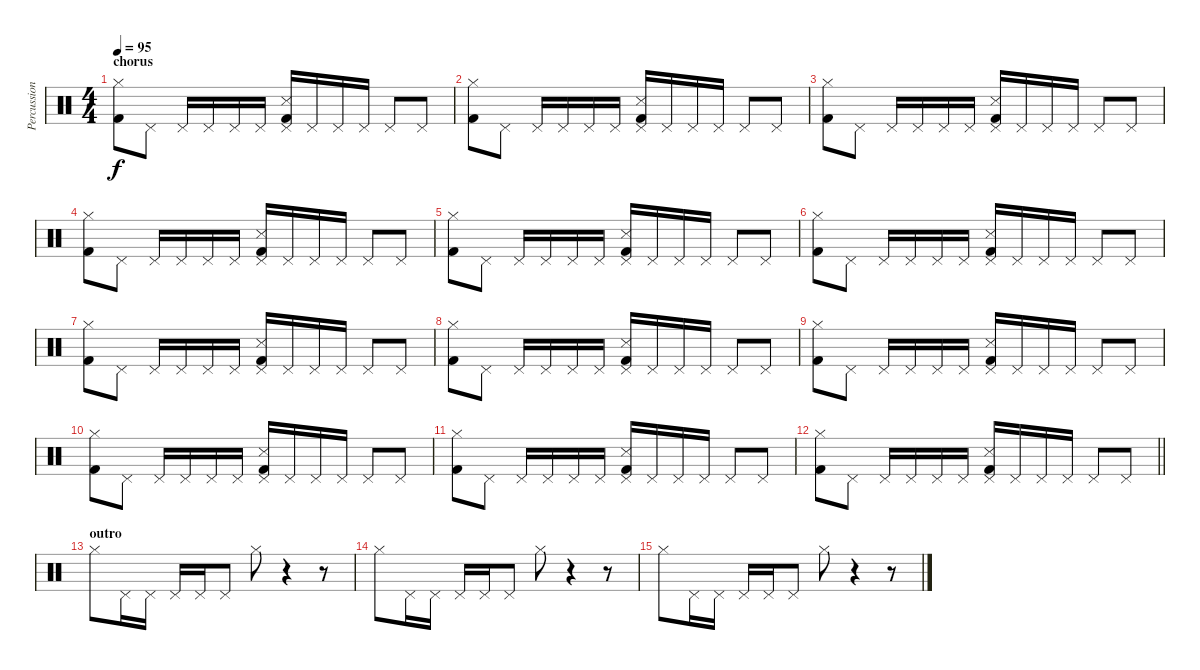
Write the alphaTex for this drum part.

\track ("Percussion" "Percussion") {instrument percussion}
\staff {score}
\articulation defaults
\ts (4 4)
\section ("" "chorus")
\tempo 95
\clef neutral
\ks c
("Kick (hit) 2" "Hi-Hat (closed)").8{dy f} "Pedal Hi-Hat (hit)".8 "Pedal Hi-Hat (hit)".16 "Pedal Hi-Hat (hit)".16 "Pedal Hi-Hat (hit)".16 "Pedal Hi-Hat (hit)".16 ("Kick (hit) 2" "Snare (side stick) 3" "Pedal Hi-Hat (hit)").16 "Pedal Hi-Hat (hit)".16 "Pedal Hi-Hat (hit)".16 "Pedal Hi-Hat (hit)".16 "Pedal Hi-Hat (hit)".8 "Pedal Hi-Hat (hit)".8 |
("Kick (hit) 2" "Hi-Hat (closed)").8 "Pedal Hi-Hat (hit)".8 "Pedal Hi-Hat (hit)".16 "Pedal Hi-Hat (hit)".16 "Pedal Hi-Hat (hit)".16 "Pedal Hi-Hat (hit)".16 ("Kick (hit) 2" "Snare (side stick) 3" "Pedal Hi-Hat (hit)").16 "Pedal Hi-Hat (hit)".16 "Pedal Hi-Hat (hit)".16 "Pedal Hi-Hat (hit)".16 "Pedal Hi-Hat (hit)".8 "Pedal Hi-Hat (hit)".8 |
("Kick (hit) 2" "Hi-Hat (closed)").8 "Pedal Hi-Hat (hit)".8 "Pedal Hi-Hat (hit)".16 "Pedal Hi-Hat (hit)".16 "Pedal Hi-Hat (hit)".16 "Pedal Hi-Hat (hit)".16 ("Kick (hit) 2" "Snare (side stick) 3" "Pedal Hi-Hat (hit)").16 "Pedal Hi-Hat (hit)".16 "Pedal Hi-Hat (hit)".16 "Pedal Hi-Hat (hit)".16 "Pedal Hi-Hat (hit)".8 "Pedal Hi-Hat (hit)".8 |
("Kick (hit) 2" "Hi-Hat (closed)").8 "Pedal Hi-Hat (hit)".8 "Pedal Hi-Hat (hit)".16 "Pedal Hi-Hat (hit)".16 "Pedal Hi-Hat (hit)".16 "Pedal Hi-Hat (hit)".16 ("Kick (hit) 2" "Snare (side stick) 3" "Pedal Hi-Hat (hit)").16 "Pedal Hi-Hat (hit)".16 "Pedal Hi-Hat (hit)".16 "Pedal Hi-Hat (hit)".16 "Pedal Hi-Hat (hit)".8 "Pedal Hi-Hat (hit)".8 |
("Kick (hit) 2" "Hi-Hat (closed)").8 "Pedal Hi-Hat (hit)".8 "Pedal Hi-Hat (hit)".16 "Pedal Hi-Hat (hit)".16 "Pedal Hi-Hat (hit)".16 "Pedal Hi-Hat (hit)".16 ("Kick (hit) 2" "Snare (side stick) 3" "Pedal Hi-Hat (hit)").16 "Pedal Hi-Hat (hit)".16 "Pedal Hi-Hat (hit)".16 "Pedal Hi-Hat (hit)".16 "Pedal Hi-Hat (hit)".8 "Pedal Hi-Hat (hit)".8 |
("Kick (hit) 2" "Hi-Hat (closed)").8 "Pedal Hi-Hat (hit)".8 "Pedal Hi-Hat (hit)".16 "Pedal Hi-Hat (hit)".16 "Pedal Hi-Hat (hit)".16 "Pedal Hi-Hat (hit)".16 ("Kick (hit) 2" "Snare (side stick) 3" "Pedal Hi-Hat (hit)").16 "Pedal Hi-Hat (hit)".16 "Pedal Hi-Hat (hit)".16 "Pedal Hi-Hat (hit)".16 "Pedal Hi-Hat (hit)".8 "Pedal Hi-Hat (hit)".8 |
("Kick (hit) 2" "Hi-Hat (closed)").8 "Pedal Hi-Hat (hit)".8 "Pedal Hi-Hat (hit)".16 "Pedal Hi-Hat (hit)".16 "Pedal Hi-Hat (hit)".16 "Pedal Hi-Hat (hit)".16 ("Kick (hit) 2" "Snare (side stick) 3" "Pedal Hi-Hat (hit)").16 "Pedal Hi-Hat (hit)".16 "Pedal Hi-Hat (hit)".16 "Pedal Hi-Hat (hit)".16 "Pedal Hi-Hat (hit)".8 "Pedal Hi-Hat (hit)".8 |
("Kick (hit) 2" "Hi-Hat (closed)").8 "Pedal Hi-Hat (hit)".8 "Pedal Hi-Hat (hit)".16 "Pedal Hi-Hat (hit)".16 "Pedal Hi-Hat (hit)".16 "Pedal Hi-Hat (hit)".16 ("Kick (hit) 2" "Snare (side stick) 3" "Pedal Hi-Hat (hit)").16 "Pedal Hi-Hat (hit)".16 "Pedal Hi-Hat (hit)".16 "Pedal Hi-Hat (hit)".16 "Pedal Hi-Hat (hit)".8 "Pedal Hi-Hat (hit)".8 |
("Kick (hit) 2" "Hi-Hat (closed)").8 "Pedal Hi-Hat (hit)".8 "Pedal Hi-Hat (hit)".16 "Pedal Hi-Hat (hit)".16 "Pedal Hi-Hat (hit)".16 "Pedal Hi-Hat (hit)".16 ("Kick (hit) 2" "Snare (side stick) 3" "Pedal Hi-Hat (hit)").16 "Pedal Hi-Hat (hit)".16 "Pedal Hi-Hat (hit)".16 "Pedal Hi-Hat (hit)".16 "Pedal Hi-Hat (hit)".8 "Pedal Hi-Hat (hit)".8 |
("Kick (hit) 2" "Hi-Hat (closed)").8 "Pedal Hi-Hat (hit)".8 "Pedal Hi-Hat (hit)".16 "Pedal Hi-Hat (hit)".16 "Pedal Hi-Hat (hit)".16 "Pedal Hi-Hat (hit)".16 ("Kick (hit) 2" "Snare (side stick) 3" "Pedal Hi-Hat (hit)").16 "Pedal Hi-Hat (hit)".16 "Pedal Hi-Hat (hit)".16 "Pedal Hi-Hat (hit)".16 "Pedal Hi-Hat (hit)".8 "Pedal Hi-Hat (hit)".8 |
("Kick (hit) 2" "Hi-Hat (closed)").8 "Pedal Hi-Hat (hit)".8 "Pedal Hi-Hat (hit)".16 "Pedal Hi-Hat (hit)".16 "Pedal Hi-Hat (hit)".16 "Pedal Hi-Hat (hit)".16 ("Kick (hit) 2" "Snare (side stick) 3" "Pedal Hi-Hat (hit)").16 "Pedal Hi-Hat (hit)".16 "Pedal Hi-Hat (hit)".16 "Pedal Hi-Hat (hit)".16 "Pedal Hi-Hat (hit)".8 "Pedal Hi-Hat (hit)".8 |
\barLineRight lightlight
("Kick (hit) 2" "Hi-Hat (closed)").8 "Pedal Hi-Hat (hit)".8 "Pedal Hi-Hat (hit)".16 "Pedal Hi-Hat (hit)".16 "Pedal Hi-Hat (hit)".16 "Pedal Hi-Hat (hit)".16 ("Kick (hit) 2" "Snare (side stick) 3" "Pedal Hi-Hat (hit)").16 "Pedal Hi-Hat (hit)".16 "Pedal Hi-Hat (hit)".16 "Pedal Hi-Hat (hit)".16 "Pedal Hi-Hat (hit)".8 "Pedal Hi-Hat (hit)".8 |
\section ("" "outro")
"Hi-Hat (closed)".8 "Pedal Hi-Hat (hit)".16 "Pedal Hi-Hat (hit)".16 "Pedal Hi-Hat (hit)".16 "Pedal Hi-Hat (hit)".16 "Pedal Hi-Hat (hit)".8 "Hi-Hat (closed)".8 r.4 r.8 |
"Hi-Hat (closed)".8 "Pedal Hi-Hat (hit)".16 "Pedal Hi-Hat (hit)".16 "Pedal Hi-Hat (hit)".16 "Pedal Hi-Hat (hit)".16 "Pedal Hi-Hat (hit)".8 "Hi-Hat (closed)".8 r.4 r.8 |
"Hi-Hat (closed)".8 "Pedal Hi-Hat (hit)".16 "Pedal Hi-Hat (hit)".16 "Pedal Hi-Hat (hit)".16 "Pedal Hi-Hat (hit)".16 "Pedal Hi-Hat (hit)".8 "Hi-Hat (closed)".8 r.4 r.8
